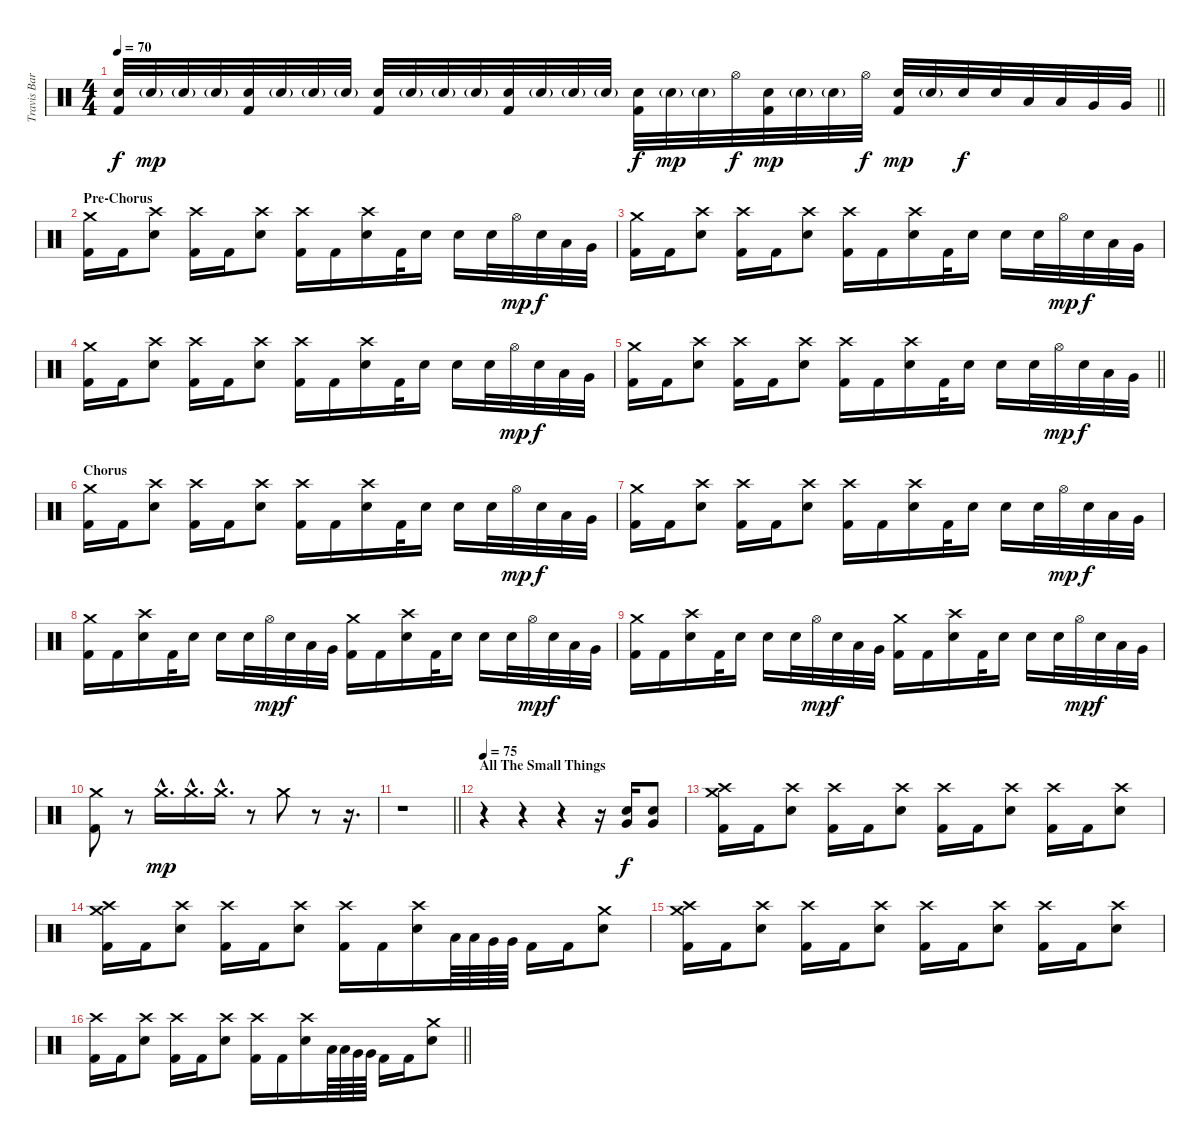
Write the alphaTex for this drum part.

\track ("Travis Barker" "Travis Bar") {instrument percussion}
\staff {score}
\articulation defaults
\ts (4 4)
\tempo 70
\clef neutral
\barLineRight lightlight
\ks c
("Electric Snare (hit)" "Kick (hit) 2").32{dy f} "Electric Snare (hit)"{g}.32{dy mp} "Electric Snare (hit)"{g}.32 "Electric Snare (hit)"{g}.32 ("Electric Snare (hit)" "Kick (hit) 2").32 "Electric Snare (hit)"{g}.32 "Electric Snare (hit)"{g}.32 "Electric Snare (hit)"{g}.32 ("Electric Snare (hit)" "Kick (hit) 2").32 "Electric Snare (hit)"{g}.32 "Electric Snare (hit)"{g}.32 "Electric Snare (hit)"{g}.32 ("Electric Snare (hit)" "Kick (hit) 2").32 "Electric Snare (hit)"{g}.32 "Electric Snare (hit)"{g}.32 "Electric Snare (hit)"{g}.32 ("Electric Snare (hit)" "Kick (hit) 2").32{dy f} "Electric Snare (hit)"{g}.32{dy mp} "Electric Snare (hit)"{g}.32 "Hi-Hat (open)".32{dy f} ("Electric Snare (hit)" "Kick (hit) 2").32{dy mp} "Electric Snare (hit)"{g}.32 "Electric Snare (hit)"{g}.32 "Hi-Hat (open)".32{dy f} ("Electric Snare (hit)" "Kick (hit) 2").32{dy mp} "Electric Snare (hit)"{g}.32 "Electric Snare (hit)".32{dy f} "Electric Snare (hit)".32 "Low Tom (hit)".32 "Low Tom (hit)".32 "Very Low Tom (hit)".32 "Very Low Tom (hit)".32 |
\section ("" "Pre-Chorus")
("Crash medium (hit)" "Kick (hit) 2").16 "Kick (hit) 2".16 ("Crash high (hit)" "Electric Snare (hit)").8 ("Crash high (hit)" "Kick (hit) 2").16 "Kick (hit) 2".16 ("Crash high (hit)" "Electric Snare (hit)").8 ("Crash high (hit)" "Kick (hit) 2").16 "Kick (hit) 2".16 ("Crash high (hit)" "Electric Snare (hit)").16 "Kick (hit) 2".32 "Electric Snare (hit)".16 "Electric Snare (hit)".16 "Electric Snare (hit)".32 "Hi-Hat (open)".32{dy mp} "Electric Snare (hit)".32{dy f} "Low Tom (hit)".32 "Very Low Tom (hit)".32 |
("Crash medium (hit)" "Kick (hit) 2").16 "Kick (hit) 2".16 ("Crash high (hit)" "Electric Snare (hit)").8 ("Crash high (hit)" "Kick (hit) 2").16 "Kick (hit) 2".16 ("Crash high (hit)" "Electric Snare (hit)").8 ("Crash high (hit)" "Kick (hit) 2").16 "Kick (hit) 2".16 ("Crash high (hit)" "Electric Snare (hit)").16 "Kick (hit) 2".32 "Electric Snare (hit)".16 "Electric Snare (hit)".16 "Electric Snare (hit)".32 "Hi-Hat (open)".32{dy mp} "Electric Snare (hit)".32{dy f} "Low Tom (hit)".32 "Very Low Tom (hit)".32 |
("Crash medium (hit)" "Kick (hit) 2").16 "Kick (hit) 2".16 ("Crash high (hit)" "Electric Snare (hit)").8 ("Crash high (hit)" "Kick (hit) 2").16 "Kick (hit) 2".16 ("Crash high (hit)" "Electric Snare (hit)").8 ("Crash high (hit)" "Kick (hit) 2").16 "Kick (hit) 2".16 ("Crash high (hit)" "Electric Snare (hit)").16 "Kick (hit) 2".32 "Electric Snare (hit)".16 "Electric Snare (hit)".16 "Electric Snare (hit)".32 "Hi-Hat (open)".32{dy mp} "Electric Snare (hit)".32{dy f} "Low Tom (hit)".32 "Very Low Tom (hit)".32 |
\barLineRight lightlight
("Crash medium (hit)" "Kick (hit) 2").16 "Kick (hit) 2".16 ("Crash high (hit)" "Electric Snare (hit)").8 ("Crash high (hit)" "Kick (hit) 2").16 "Kick (hit) 2".16 ("Crash high (hit)" "Electric Snare (hit)").8 ("Crash high (hit)" "Kick (hit) 2").16 "Kick (hit) 2".16 ("Crash high (hit)" "Electric Snare (hit)").16 "Kick (hit) 2".32 "Electric Snare (hit)".16 "Electric Snare (hit)".16 "Electric Snare (hit)".32 "Hi-Hat (open)".32{dy mp} "Electric Snare (hit)".32{dy f} "Low Tom (hit)".32 "Very Low Tom (hit)".32 |
\section ("" "Chorus")
("Crash medium (hit)" "Kick (hit) 2").16 "Kick (hit) 2".16 ("Crash high (hit)" "Electric Snare (hit)").8 ("Crash high (hit)" "Kick (hit) 2").16 "Kick (hit) 2".16 ("Crash high (hit)" "Electric Snare (hit)").8 ("Crash high (hit)" "Kick (hit) 2").16 "Kick (hit) 2".16 ("Crash high (hit)" "Electric Snare (hit)").16 "Kick (hit) 2".32 "Electric Snare (hit)".16 "Electric Snare (hit)".16 "Electric Snare (hit)".32 "Hi-Hat (open)".32{dy mp} "Electric Snare (hit)".32{dy f} "Low Tom (hit)".32 "Very Low Tom (hit)".32 |
("Crash medium (hit)" "Kick (hit) 2").16 "Kick (hit) 2".16 ("Crash high (hit)" "Electric Snare (hit)").8 ("Crash high (hit)" "Kick (hit) 2").16 "Kick (hit) 2".16 ("Crash high (hit)" "Electric Snare (hit)").8 ("Crash high (hit)" "Kick (hit) 2").16 "Kick (hit) 2".16 ("Crash high (hit)" "Electric Snare (hit)").16 "Kick (hit) 2".32 "Electric Snare (hit)".16 "Electric Snare (hit)".16 "Electric Snare (hit)".32 "Hi-Hat (open)".32{dy mp} "Electric Snare (hit)".32{dy f} "Low Tom (hit)".32 "Very Low Tom (hit)".32 |
("Crash medium (hit)" "Kick (hit) 2").16 "Kick (hit) 2".16 ("Crash high (hit)" "Electric Snare (hit)").16 "Kick (hit) 2".32 "Electric Snare (hit)".16 "Electric Snare (hit)".16 "Electric Snare (hit)".32 "Hi-Hat (open)".32{dy mp} "Electric Snare (hit)".32{dy f} "Low Tom (hit)".32 "Very Low Tom (hit)".32 ("Crash medium (hit)" "Kick (hit) 2").16 "Kick (hit) 2".16 ("Crash high (hit)" "Electric Snare (hit)").16 "Kick (hit) 2".32 "Electric Snare (hit)".16 "Electric Snare (hit)".16 "Electric Snare (hit)".32 "Hi-Hat (open)".32{dy mp} "Electric Snare (hit)".32{dy f} "Low Tom (hit)".32 "Very Low Tom (hit)".32 |
("Crash medium (hit)" "Kick (hit) 2").16 "Kick (hit) 2".16 ("Crash high (hit)" "Electric Snare (hit)").16 "Kick (hit) 2".32 "Electric Snare (hit)".16 "Electric Snare (hit)".16 "Electric Snare (hit)".32 "Hi-Hat (open)".32{dy mp} "Electric Snare (hit)".32{dy f} "Low Tom (hit)".32 "Very Low Tom (hit)".32 ("Crash medium (hit)" "Kick (hit) 2").16 "Kick (hit) 2".16 ("Crash high (hit)" "Electric Snare (hit)").16 "Kick (hit) 2".32 "Electric Snare (hit)".16 "Electric Snare (hit)".16 "Electric Snare (hit)".32 "Hi-Hat (open)".32{dy mp} "Electric Snare (hit)".32{dy f} "Low Tom (hit)".32 "Very Low Tom (hit)".32 |
("Crash medium (hit)" "Kick (hit) 2").8 r.8 "Crash medium (hit)"{hac}.16{d dy mp} "Crash medium (hit)"{hac}.16{d} "Crash medium (hit)"{hac}.16{d} r.8 "Crash medium (hit)".8 r.8 r.16{d} |
\barLineRight lightlight
r.1 |
\section ("" "All The Small Things")
\tempo 75
r.4 r.4 r.4 r.16 ("Electric Snare (hit)" "Very Low Tom (hit)").16{dy f} ("Electric Snare (hit)" "Very Low Tom (hit)").8 |
("Crash medium (hit)" "Crash high (hit)" "Kick (hit) 2").16 "Kick (hit) 2".16 ("Crash high (hit)" "Electric Snare (hit)").8 ("Crash high (hit)" "Kick (hit) 2").16 "Kick (hit) 2".16 ("Crash high (hit)" "Electric Snare (hit)").8 ("Crash high (hit)" "Kick (hit) 2").16 "Kick (hit) 2".16 ("Crash high (hit)" "Electric Snare (hit)").8 ("Crash high (hit)" "Kick (hit) 2").16 "Kick (hit) 2".16 ("Crash high (hit)" "Electric Snare (hit)").8 |
("Crash medium (hit)" "Crash high (hit)" "Kick (hit) 2").16 "Kick (hit) 2".16 ("Crash high (hit)" "Electric Snare (hit)").8 ("Crash high (hit)" "Kick (hit) 2").16 "Kick (hit) 2".16 ("Crash high (hit)" "Electric Snare (hit)").8 ("Crash high (hit)" "Kick (hit) 2").16 "Kick (hit) 2".16 ("Crash high (hit)" "Electric Snare (hit)").16 "Low Tom (hit)".64 "Low Tom (hit)".64 "Very Low Tom (hit)".64 "Very Low Tom (hit)".64 "Kick (hit) 2".16 "Kick (hit) 2".16 ("Crash medium (hit)" "Electric Snare (hit)").8 |
("Crash medium (hit)" "Crash high (hit)" "Kick (hit) 2").16 "Kick (hit) 2".16 ("Crash high (hit)" "Electric Snare (hit)").8 ("Crash high (hit)" "Kick (hit) 2").16 "Kick (hit) 2".16 ("Crash high (hit)" "Electric Snare (hit)").8 ("Crash high (hit)" "Kick (hit) 2").16 "Kick (hit) 2".16 ("Crash high (hit)" "Electric Snare (hit)").8 ("Crash high (hit)" "Kick (hit) 2").16 "Kick (hit) 2".16 ("Crash high (hit)" "Electric Snare (hit)").8 |
\barLineRight lightlight
("Crash high (hit)" "Kick (hit) 2").16 "Kick (hit) 2".16 ("Crash high (hit)" "Electric Snare (hit)").8 ("Crash high (hit)" "Kick (hit) 2").16 "Kick (hit) 2".16 ("Crash high (hit)" "Electric Snare (hit)").8 ("Crash high (hit)" "Kick (hit) 2").16 "Kick (hit) 2".16 ("Crash high (hit)" "Electric Snare (hit)").16 "Low Tom (hit)".64 "Low Tom (hit)".64 "Very Low Tom (hit)".64 "Very Low Tom (hit)".64 "Kick (hit) 2".16 "Kick (hit) 2".16 ("Crash medium (hit)" "Electric Snare (hit)").8
